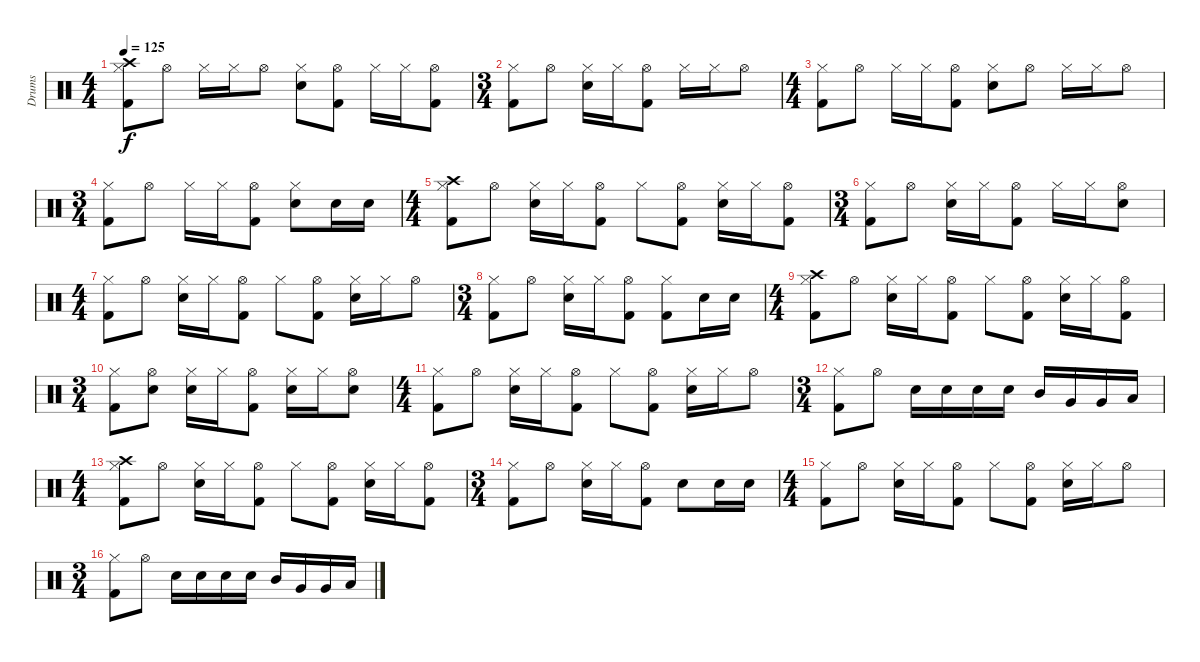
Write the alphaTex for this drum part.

\track ("Drums" "Drums") {instrument percussion}
\staff {score}
\articulation defaults
\ts (4 4)
\tempo 125
\clef neutral
\ks c
("Kick (hit) 2" "Crash high (hit)" "Hi-Hat (closed)").8{dy f} "Hi-Hat (open)".8 "Hi-Hat (closed)".16 "Hi-Hat (closed)".16 "Hi-Hat (open)".8 ("Hi-Hat (closed)" "Electric Snare (hit)").8 ("Kick (hit) 2" "Hi-Hat (open)").8 "Hi-Hat (closed)".16 "Hi-Hat (closed)".16 ("Kick (hit) 2" "Hi-Hat (open)").8 |
\ts (3 4)
("Kick (hit) 2" "Hi-Hat (closed)").8 "Hi-Hat (open)".8 ("Hi-Hat (closed)" "Electric Snare (hit)").16 "Hi-Hat (closed)".16 ("Kick (hit) 2" "Hi-Hat (open)").8 "Hi-Hat (closed)".16 "Hi-Hat (closed)".16 "Hi-Hat (open)".8 |
\ts (4 4)
("Kick (hit) 2" "Hi-Hat (closed)").8 "Hi-Hat (open)".8 "Hi-Hat (closed)".16 "Hi-Hat (closed)".16 ("Kick (hit) 2" "Hi-Hat (open)").8 ("Hi-Hat (closed)" "Electric Snare (hit)").8 "Hi-Hat (open)".8 "Hi-Hat (closed)".16 "Hi-Hat (closed)".16 "Hi-Hat (open)".8 |
\ts (3 4)
("Kick (hit) 2" "Hi-Hat (closed)").8 "Hi-Hat (open)".8 "Hi-Hat (closed)".16 "Hi-Hat (closed)".16 ("Kick (hit) 2" "Hi-Hat (open)").8 ("Hi-Hat (closed)" "Electric Snare (hit)").8 "Electric Snare (hit)".16 "Electric Snare (hit)".16 |
\ts (4 4)
("Kick (hit) 2" "Crash high (hit)" "Hi-Hat (closed)").8 "Hi-Hat (open)".8 ("Hi-Hat (closed)" "Electric Snare (hit)").16 "Hi-Hat (closed)".16 ("Kick (hit) 2" "Hi-Hat (open)").8 "Hi-Hat (closed)".8 ("Kick (hit) 2" "Hi-Hat (open)").8 ("Hi-Hat (closed)" "Electric Snare (hit)").16 "Hi-Hat (closed)".16 ("Kick (hit) 2" "Hi-Hat (open)").8 |
\ts (3 4)
("Kick (hit) 2" "Hi-Hat (closed)").8 "Hi-Hat (open)".8 ("Hi-Hat (closed)" "Electric Snare (hit)").16 "Hi-Hat (closed)".16 ("Kick (hit) 2" "Hi-Hat (open)").8 "Hi-Hat (closed)".16 "Hi-Hat (closed)".16 ("Hi-Hat (open)" "Electric Snare (hit)").8 |
\ts (4 4)
("Kick (hit) 2" "Hi-Hat (closed)").8 "Hi-Hat (open)".8 ("Hi-Hat (closed)" "Electric Snare (hit)").16 "Hi-Hat (closed)".16 ("Kick (hit) 2" "Hi-Hat (open)").8 "Hi-Hat (closed)".8 ("Kick (hit) 2" "Hi-Hat (open)").8 ("Hi-Hat (closed)" "Electric Snare (hit)").16 "Hi-Hat (closed)".16 "Hi-Hat (open)".8 |
\ts (3 4)
("Kick (hit) 2" "Hi-Hat (closed)").8 "Hi-Hat (open)".8 ("Hi-Hat (closed)" "Electric Snare (hit)").16 "Hi-Hat (closed)".16 ("Kick (hit) 2" "Hi-Hat (open)").8 ("Kick (hit) 2" "Hi-Hat (closed)").8 "Electric Snare (hit)".16 "Electric Snare (hit)".16 |
\ts (4 4)
("Kick (hit) 2" "Crash high (hit)" "Hi-Hat (closed)").8 "Hi-Hat (open)".8 ("Hi-Hat (closed)" "Electric Snare (hit)").16 "Hi-Hat (closed)".16 ("Kick (hit) 2" "Hi-Hat (open)").8 "Hi-Hat (closed)".8 ("Kick (hit) 2" "Hi-Hat (open)").8 ("Hi-Hat (closed)" "Electric Snare (hit)").16 "Hi-Hat (closed)".16 ("Kick (hit) 2" "Hi-Hat (open)").8 |
\ts (3 4)
("Kick (hit) 2" "Hi-Hat (closed)").8 ("Hi-Hat (open)" "Electric Snare (hit)").8 ("Hi-Hat (closed)" "Electric Snare (hit)").16 "Hi-Hat (closed)".16 ("Kick (hit) 2" "Hi-Hat (open)").8 ("Hi-Hat (closed)" "Electric Snare (hit)").16 "Hi-Hat (closed)".16 ("Hi-Hat (open)" "Electric Snare (hit)").8 |
\ts (4 4)
("Kick (hit) 2" "Hi-Hat (closed)").8 "Hi-Hat (open)".8 ("Hi-Hat (closed)" "Electric Snare (hit)").16 "Hi-Hat (closed)".16 ("Kick (hit) 2" "Hi-Hat (open)").8 "Hi-Hat (closed)".8 ("Kick (hit) 2" "Hi-Hat (open)").8 ("Hi-Hat (closed)" "Electric Snare (hit)").16 "Hi-Hat (closed)".16 "Hi-Hat (open)".8 |
\ts (3 4)
("Kick (hit) 2" "Hi-Hat (closed)").8 "Hi-Hat (open)".8 "Electric Snare (hit)".16 "Electric Snare (hit)".16 "Electric Snare (hit)".16 "Electric Snare (hit)".16 "Mid Tom (hit)".16 "Very Low Tom (hit)".16 "Very Low Tom (hit)".16 "Low Floor Tom (hit)".16 |
\ts (4 4)
("Kick (hit) 2" "Crash high (hit)" "Hi-Hat (closed)").8 "Hi-Hat (open)".8 ("Hi-Hat (closed)" "Electric Snare (hit)").16 "Hi-Hat (closed)".16 ("Kick (hit) 2" "Hi-Hat (open)").8 "Hi-Hat (closed)".8 ("Kick (hit) 2" "Hi-Hat (open)").8 ("Hi-Hat (closed)" "Electric Snare (hit)").16 "Hi-Hat (closed)".16 ("Kick (hit) 2" "Hi-Hat (open)").8 |
\ts (3 4)
("Kick (hit) 2" "Hi-Hat (closed)").8 "Hi-Hat (open)".8 ("Hi-Hat (closed)" "Electric Snare (hit)").16 "Hi-Hat (closed)".16 ("Kick (hit) 2" "Hi-Hat (open)").8 "Electric Snare (hit)".8 "Electric Snare (hit)".16 "Electric Snare (hit)".16 |
\ts (4 4)
("Kick (hit) 2" "Hi-Hat (closed)").8 "Hi-Hat (open)".8 ("Hi-Hat (closed)" "Electric Snare (hit)").16 "Hi-Hat (closed)".16 ("Kick (hit) 2" "Hi-Hat (open)").8 "Hi-Hat (closed)".8 ("Kick (hit) 2" "Hi-Hat (open)").8 ("Hi-Hat (closed)" "Electric Snare (hit)").16 "Hi-Hat (closed)".16 "Hi-Hat (open)".8 |
\ts (3 4)
("Kick (hit) 2" "Hi-Hat (closed)").8 "Hi-Hat (open)".8 "Electric Snare (hit)".16 "Electric Snare (hit)".16 "Electric Snare (hit)".16 "Electric Snare (hit)".16 "Mid Tom (hit)".16 "Very Low Tom (hit)".16 "Very Low Tom (hit)".16 "Low Floor Tom (hit)".16
